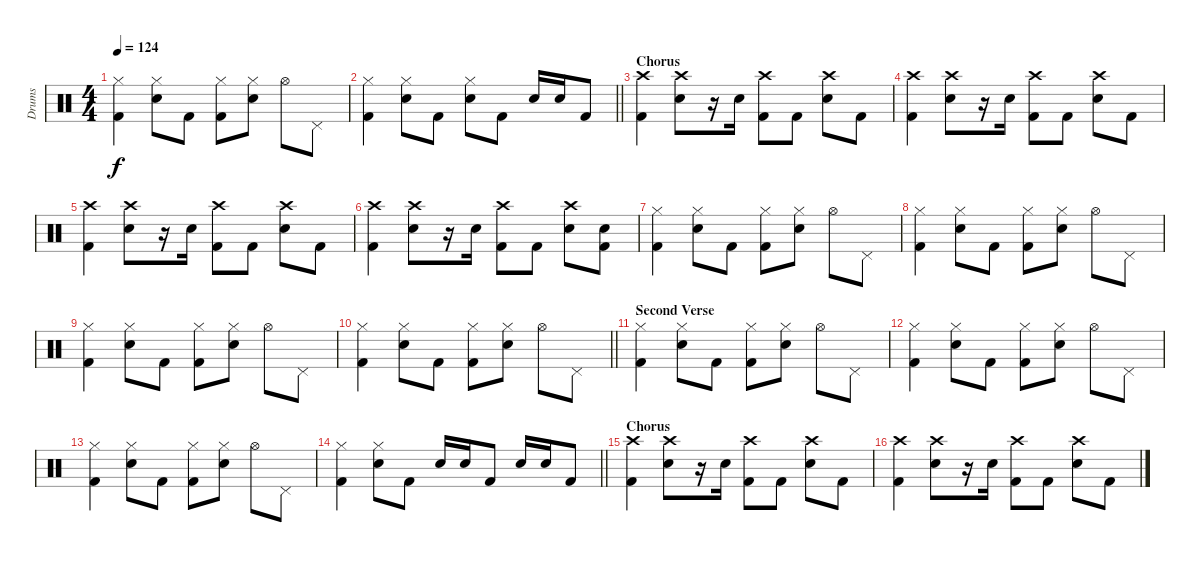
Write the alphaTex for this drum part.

\track ("Drums" "Drums") {instrument percussion}
\staff {score}
\articulation defaults
\ts (4 4)
\tempo 124
\clef neutral
\ks c
("Hi-Hat (closed)" "Kick (hit) 2").4{dy f} ("Hi-Hat (closed)" "Electric Snare (hit)").8 "Kick (hit) 2".8 ("Hi-Hat (closed)" "Kick (hit) 2").8 ("Hi-Hat (closed)" "Electric Snare (hit)").8 "Hi-Hat (open)".8 "Pedal Hi-Hat (hit)".8 |
\barLineRight lightlight
("Hi-Hat (closed)" "Kick (hit) 2").4 ("Hi-Hat (closed)" "Electric Snare (hit)").8 "Kick (hit) 2".8 ("Hi-Hat (closed)" "Electric Snare (hit)").8 "Kick (hit) 2".8 "Electric Snare (hit)".16 "Electric Snare (hit)".16 "Kick (hit) 2".8 |
\section ("" "Chorus")
("Crash high (hit)" "Kick (hit) 2").4 ("Crash high (hit)" "Electric Snare (hit)").8 r.16 "Electric Snare (hit)".16 ("Crash high (hit)" "Kick (hit) 2").8 "Kick (hit) 2".8 ("Crash high (hit)" "Electric Snare (hit)").8 "Kick (hit) 2".8 |
("Crash high (hit)" "Kick (hit) 2").4 ("Crash high (hit)" "Electric Snare (hit)").8 r.16 "Electric Snare (hit)".16 ("Crash high (hit)" "Kick (hit) 2").8 "Kick (hit) 2".8 ("Crash high (hit)" "Electric Snare (hit)").8 "Kick (hit) 2".8 |
("Crash high (hit)" "Kick (hit) 2").4 ("Crash high (hit)" "Electric Snare (hit)").8 r.16 "Electric Snare (hit)".16 ("Crash high (hit)" "Kick (hit) 2").8 "Kick (hit) 2".8 ("Crash high (hit)" "Electric Snare (hit)").8 "Kick (hit) 2".8 |
("Crash high (hit)" "Kick (hit) 2").4 ("Crash high (hit)" "Electric Snare (hit)").8 r.16 "Electric Snare (hit)".16 ("Crash high (hit)" "Kick (hit) 2").8 "Kick (hit) 2".8 ("Crash high (hit)" "Electric Snare (hit)").8 ("Electric Snare (hit)" "Kick (hit) 2").8 |
("Hi-Hat (closed)" "Kick (hit) 2").4 ("Hi-Hat (closed)" "Electric Snare (hit)").8 "Kick (hit) 2".8 ("Hi-Hat (closed)" "Kick (hit) 2").8 ("Hi-Hat (closed)" "Electric Snare (hit)").8 "Hi-Hat (open)".8 "Pedal Hi-Hat (hit)".8 |
("Hi-Hat (closed)" "Kick (hit) 2").4 ("Hi-Hat (closed)" "Electric Snare (hit)").8 "Kick (hit) 2".8 ("Hi-Hat (closed)" "Kick (hit) 2").8 ("Hi-Hat (closed)" "Electric Snare (hit)").8 "Hi-Hat (open)".8 "Pedal Hi-Hat (hit)".8 |
("Hi-Hat (closed)" "Kick (hit) 2").4 ("Hi-Hat (closed)" "Electric Snare (hit)").8 "Kick (hit) 2".8 ("Hi-Hat (closed)" "Kick (hit) 2").8 ("Hi-Hat (closed)" "Electric Snare (hit)").8 "Hi-Hat (open)".8 "Pedal Hi-Hat (hit)".8 |
\barLineRight lightlight
("Hi-Hat (closed)" "Kick (hit) 2").4 ("Hi-Hat (closed)" "Electric Snare (hit)").8 "Kick (hit) 2".8 ("Hi-Hat (closed)" "Kick (hit) 2").8 ("Hi-Hat (closed)" "Electric Snare (hit)").8 "Hi-Hat (open)".8 "Pedal Hi-Hat (hit)".8 |
\section ("" "Second Verse")
("Hi-Hat (closed)" "Kick (hit) 2").4 ("Hi-Hat (closed)" "Electric Snare (hit)").8 "Kick (hit) 2".8 ("Hi-Hat (closed)" "Kick (hit) 2").8 ("Hi-Hat (closed)" "Electric Snare (hit)").8 "Hi-Hat (open)".8 "Pedal Hi-Hat (hit)".8 |
("Hi-Hat (closed)" "Kick (hit) 2").4 ("Hi-Hat (closed)" "Electric Snare (hit)").8 "Kick (hit) 2".8 ("Hi-Hat (closed)" "Kick (hit) 2").8 ("Hi-Hat (closed)" "Electric Snare (hit)").8 "Hi-Hat (open)".8 "Pedal Hi-Hat (hit)".8 |
("Hi-Hat (closed)" "Kick (hit) 2").4 ("Hi-Hat (closed)" "Electric Snare (hit)").8 "Kick (hit) 2".8 ("Hi-Hat (closed)" "Kick (hit) 2").8 ("Hi-Hat (closed)" "Electric Snare (hit)").8 "Hi-Hat (open)".8 "Pedal Hi-Hat (hit)".8 |
\barLineRight lightlight
("Hi-Hat (closed)" "Kick (hit) 2").4 ("Hi-Hat (closed)" "Electric Snare (hit)").8 "Kick (hit) 2".8 "Electric Snare (hit)".16 "Electric Snare (hit)".16 "Kick (hit) 2".8 "Electric Snare (hit)".16 "Electric Snare (hit)".16 "Kick (hit) 2".8 |
\section ("" "Chorus")
("Crash high (hit)" "Kick (hit) 2").4 ("Crash high (hit)" "Electric Snare (hit)").8 r.16 "Electric Snare (hit)".16 ("Crash high (hit)" "Kick (hit) 2").8 "Kick (hit) 2".8 ("Crash high (hit)" "Electric Snare (hit)").8 "Kick (hit) 2".8 |
("Crash high (hit)" "Kick (hit) 2").4 ("Crash high (hit)" "Electric Snare (hit)").8 r.16 "Electric Snare (hit)".16 ("Crash high (hit)" "Kick (hit) 2").8 "Kick (hit) 2".8 ("Crash high (hit)" "Electric Snare (hit)").8 "Kick (hit) 2".8
